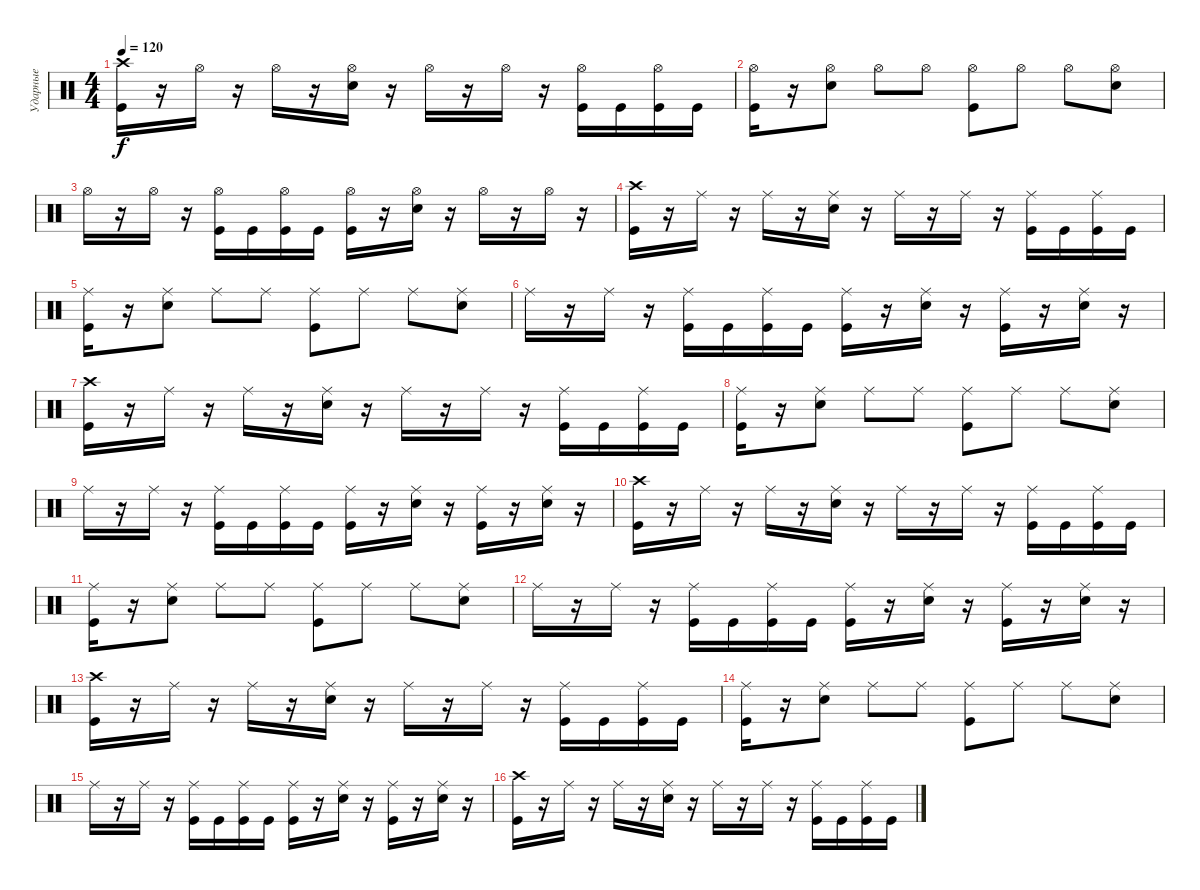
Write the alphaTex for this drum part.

\track ("Ударные" "Ударные") {instrument percussion}
\staff {score}
\articulation defaults
\ts (4 4)
\tempo 120
\clef neutral
\ks c
("Crash high (hit)" "Kick (hit)").16{dy f} r.16 "Hi-Hat (open)".16 r.16 "Hi-Hat (open)".16 r.16 ("Hi-Hat (open)" "Snare (hit) 2").16 r.16 "Hi-Hat (open)".16 r.16 "Hi-Hat (open)".16 r.16 ("Hi-Hat (open)" "Kick (hit)").16 "Kick (hit)".16 ("Hi-Hat (open)" "Kick (hit)").16 "Kick (hit)".16 |
("Hi-Hat (open)" "Kick (hit)").16 r.16 ("Hi-Hat (open)" "Snare (hit) 2").8 "Hi-Hat (open)".8 "Hi-Hat (open)".8 ("Hi-Hat (open)" "Kick (hit)").8 "Hi-Hat (open)".8 "Hi-Hat (open)".8 ("Hi-Hat (open)" "Snare (hit) 2").8 |
"Hi-Hat (open)".16 r.16 "Hi-Hat (open)".16 r.16 ("Hi-Hat (open)" "Kick (hit)").16 "Kick (hit)".16 ("Hi-Hat (open)" "Kick (hit)").16 "Kick (hit)".16 ("Hi-Hat (open)" "Kick (hit)").16 r.16 ("Hi-Hat (open)" "Snare (hit) 2").16 r.16 "Hi-Hat (open)".16 r.16 "Hi-Hat (open)".16 r.16 |
("Crash high (hit)" "Kick (hit)").16 r.16 "Ride (middle)".16 r.16 "Ride (middle)".16 r.16 ("Ride (middle)" "Snare (hit) 2").16 r.16 "Ride (middle)".16 r.16 "Ride (middle)".16 r.16 ("Ride (middle)" "Kick (hit)").16 "Kick (hit)".16 ("Ride (middle)" "Kick (hit)").16 "Kick (hit)".16 |
("Ride (middle)" "Kick (hit)").16 r.16 ("Ride (middle)" "Snare (hit) 2").8 "Ride (middle)".8 "Ride (middle)".8 ("Ride (middle)" "Kick (hit)").8 "Ride (middle)".8 "Ride (middle)".8 ("Ride (middle)" "Snare (hit) 2").8 |
"Ride (middle)".16 r.16 "Ride (middle)".16 r.16 ("Ride (middle)" "Kick (hit)").16 "Kick (hit)".16 ("Ride (middle)" "Kick (hit)").16 "Kick (hit)".16 ("Ride (middle)" "Kick (hit)").16 r.16 ("Ride (middle)" "Snare (hit) 2").16 r.16 ("Ride (middle)" "Kick (hit)").16 r.16 ("Ride (middle)" "Snare (hit) 2").16 r.16 |
("Crash high (hit)" "Kick (hit)").16 r.16 "Ride (middle)".16 r.16 "Ride (middle)".16 r.16 ("Ride (middle)" "Snare (hit) 2").16 r.16 "Ride (middle)".16 r.16 "Ride (middle)".16 r.16 ("Ride (middle)" "Kick (hit)").16 "Kick (hit)".16 ("Ride (middle)" "Kick (hit)").16 "Kick (hit)".16 |
("Ride (middle)" "Kick (hit)").16 r.16 ("Ride (middle)" "Snare (hit) 2").8 "Ride (middle)".8 "Ride (middle)".8 ("Ride (middle)" "Kick (hit)").8 "Ride (middle)".8 "Ride (middle)".8 ("Ride (middle)" "Snare (hit) 2").8 |
"Ride (middle)".16 r.16 "Ride (middle)".16 r.16 ("Ride (middle)" "Kick (hit)").16 "Kick (hit)".16 ("Ride (middle)" "Kick (hit)").16 "Kick (hit)".16 ("Ride (middle)" "Kick (hit)").16 r.16 ("Ride (middle)" "Snare (hit) 2").16 r.16 ("Ride (middle)" "Kick (hit)").16 r.16 ("Ride (middle)" "Snare (hit) 2").16 r.16 |
("Crash high (hit)" "Kick (hit)").16 r.16 "Ride (middle)".16 r.16 "Ride (middle)".16 r.16 ("Ride (middle)" "Snare (hit) 2").16 r.16 "Ride (middle)".16 r.16 "Ride (middle)".16 r.16 ("Ride (middle)" "Kick (hit)").16 "Kick (hit)".16 ("Ride (middle)" "Kick (hit)").16 "Kick (hit)".16 |
("Ride (middle)" "Kick (hit)").16 r.16 ("Ride (middle)" "Snare (hit) 2").8 "Ride (middle)".8 "Ride (middle)".8 ("Ride (middle)" "Kick (hit)").8 "Ride (middle)".8 "Ride (middle)".8 ("Ride (middle)" "Snare (hit) 2").8 |
"Ride (middle)".16 r.16 "Ride (middle)".16 r.16 ("Ride (middle)" "Kick (hit)").16 "Kick (hit)".16 ("Ride (middle)" "Kick (hit)").16 "Kick (hit)".16 ("Ride (middle)" "Kick (hit)").16 r.16 ("Ride (middle)" "Snare (hit) 2").16 r.16 ("Ride (middle)" "Kick (hit)").16 r.16 ("Ride (middle)" "Snare (hit) 2").16 r.16 |
("Crash high (hit)" "Kick (hit)").16 r.16 "Ride (middle)".16 r.16 "Ride (middle)".16 r.16 ("Ride (middle)" "Snare (hit) 2").16 r.16 "Ride (middle)".16 r.16 "Ride (middle)".16 r.16 ("Ride (middle)" "Kick (hit)").16 "Kick (hit)".16 ("Ride (middle)" "Kick (hit)").16 "Kick (hit)".16 |
("Ride (middle)" "Kick (hit)").16 r.16 ("Ride (middle)" "Snare (hit) 2").8 "Ride (middle)".8 "Ride (middle)".8 ("Ride (middle)" "Kick (hit)").8 "Ride (middle)".8 "Ride (middle)".8 ("Ride (middle)" "Snare (hit) 2").8 |
"Ride (middle)".16 r.16 "Ride (middle)".16 r.16 ("Ride (middle)" "Kick (hit)").16 "Kick (hit)".16 ("Ride (middle)" "Kick (hit)").16 "Kick (hit)".16 ("Ride (middle)" "Kick (hit)").16 r.16 ("Ride (middle)" "Snare (hit) 2").16 r.16 ("Ride (middle)" "Kick (hit)").16 r.16 ("Ride (middle)" "Snare (hit) 2").16 r.16 |
("Crash high (hit)" "Kick (hit)").16 r.16 "Ride (middle)".16 r.16 "Ride (middle)".16 r.16 ("Ride (middle)" "Snare (hit) 2").16 r.16 "Ride (middle)".16 r.16 "Ride (middle)".16 r.16 ("Ride (middle)" "Kick (hit)").16 "Kick (hit)".16 ("Ride (middle)" "Kick (hit)").16 "Kick (hit)".16
